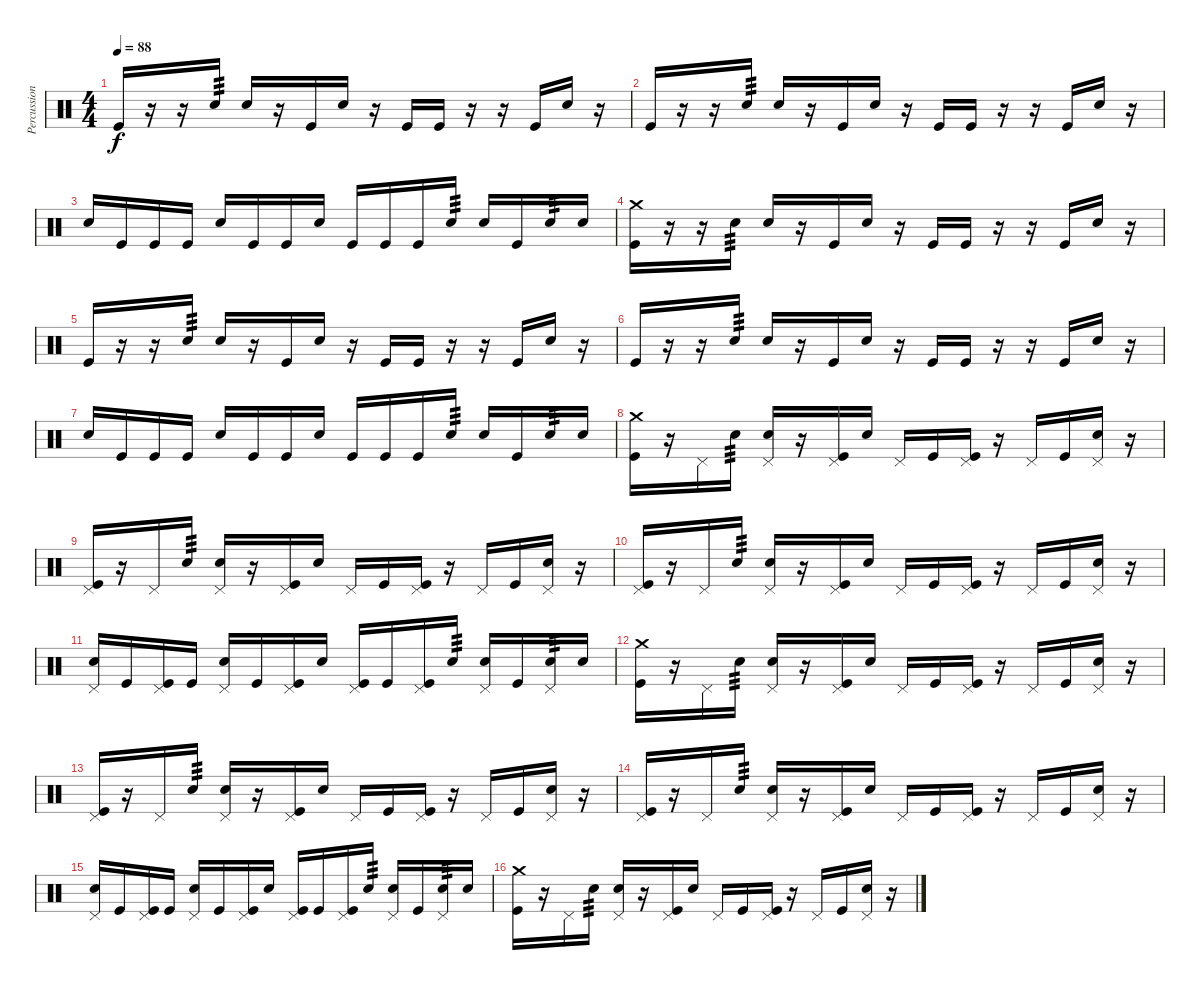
\track ("Percussions" "Percussion") {instrument percussion}
\staff {score}
\articulation defaults
\ts (4 4)
\tempo 88
\clef neutral
\ks c "Kick (hit)".16{dy f}
r.16 r.16 "Snare (hit) 2".16{tp 3} "Snare (hit) 2".16 r.16 "Kick (hit)".16 "Snare (hit) 2".16 r.16 "Kick (hit)".16 "Kick (hit)".16 r.16 r.16 "Kick (hit)".16 "Snare (hit) 2".16 r.16 |
"Kick (hit)".16 r.16 r.16 "Snare (hit) 2".16{tp 3} "Snare (hit) 2".16 r.16 "Kick (hit)".16 "Snare (hit) 2".16 r.16 "Kick (hit)".16 "Kick (hit)".16 r.16 r.16 "Kick (hit)".16 "Snare (hit) 2".16 r.16 |
"Snare (hit) 2".16 "Kick (hit)".16 "Kick (hit)".16 "Kick (hit)".16 "Snare (hit) 2".16 "Kick (hit)".16 "Kick (hit)".16 "Snare (hit) 2".16 "Kick (hit)".16 "Kick (hit)".16 "Kick (hit)".16 "Snare (hit) 2".16{tp 3} "Snare (hit) 2".16 "Kick (hit)".16 "Snare (hit) 2".16{tp 3} "Snare (hit) 2".16 |
("Crash medium (hit)" "Kick (hit)").16 r.16 r.16 "Snare (hit) 2".16{tp 3} "Snare (hit) 2".16 r.16 "Kick (hit)".16 "Snare (hit) 2".16 r.16 "Kick (hit)".16 "Kick (hit)".16 r.16 r.16 "Kick (hit)".16 "Snare (hit) 2".16 r.16 |
"Kick (hit)".16 r.16 r.16 "Snare (hit) 2".16{tp 3} "Snare (hit) 2".16 r.16 "Kick (hit)".16 "Snare (hit) 2".16 r.16 "Kick (hit)".16 "Kick (hit)".16 r.16 r.16 "Kick (hit)".16 "Snare (hit) 2".16 r.16 |
"Kick (hit)".16 r.16 r.16 "Snare (hit) 2".16{tp 3} "Snare (hit) 2".16 r.16 "Kick (hit)".16 "Snare (hit) 2".16 r.16 "Kick (hit)".16 "Kick (hit)".16 r.16 r.16 "Kick (hit)".16 "Snare (hit) 2".16 r.16 |
"Snare (hit) 2".16 "Kick (hit)".16 "Kick (hit)".16 "Kick (hit)".16 "Snare (hit) 2".16 "Kick (hit)".16 "Kick (hit)".16 "Snare (hit) 2".16 "Kick (hit)".16 "Kick (hit)".16 "Kick (hit)".16 "Snare (hit) 2".16{tp 3} "Snare (hit) 2".16 "Kick (hit)".16 "Snare (hit) 2".16{tp 3} "Snare (hit) 2".16 |
("Crash medium (hit)" "Kick (hit)").16 r.16 "Pedal Hi-Hat (hit)".16 "Snare (hit) 2".16{tp 3} ("Pedal Hi-Hat (hit)" "Snare (hit) 2").16 r.16 ("Pedal Hi-Hat (hit)" "Kick (hit)").16 "Snare (hit) 2".16 "Pedal Hi-Hat (hit)".16 "Kick (hit)".16 ("Pedal Hi-Hat (hit)" "Kick (hit)").16 r.16 "Pedal Hi-Hat (hit)".16 "Kick (hit)".16 ("Pedal Hi-Hat (hit)" "Snare (hit) 2").16 r.16 |
("Pedal Hi-Hat (hit)" "Kick (hit)").16 r.16 "Pedal Hi-Hat (hit)".16 "Snare (hit) 2".16{tp 3} ("Pedal Hi-Hat (hit)" "Snare (hit) 2").16 r.16 ("Pedal Hi-Hat (hit)" "Kick (hit)").16 "Snare (hit) 2".16 "Pedal Hi-Hat (hit)".16 "Kick (hit)".16 ("Pedal Hi-Hat (hit)" "Kick (hit)").16 r.16 "Pedal Hi-Hat (hit)".16 "Kick (hit)".16 ("Pedal Hi-Hat (hit)" "Snare (hit) 2").16 r.16 |
("Pedal Hi-Hat (hit)" "Kick (hit)").16 r.16 "Pedal Hi-Hat (hit)".16 "Snare (hit) 2".16{tp 3} ("Pedal Hi-Hat (hit)" "Snare (hit) 2").16 r.16 ("Pedal Hi-Hat (hit)" "Kick (hit)").16 "Snare (hit) 2".16 "Pedal Hi-Hat (hit)".16 "Kick (hit)".16 ("Pedal Hi-Hat (hit)" "Kick (hit)").16 r.16 "Pedal Hi-Hat (hit)".16 "Kick (hit)".16 ("Pedal Hi-Hat (hit)" "Snare (hit) 2").16 r.16 |
("Pedal Hi-Hat (hit)" "Snare (hit) 2").16 "Kick (hit)".16 ("Pedal Hi-Hat (hit)" "Kick (hit)").16 "Kick (hit)".16 ("Pedal Hi-Hat (hit)" "Snare (hit) 2").16 "Kick (hit)".16 ("Pedal Hi-Hat (hit)" "Kick (hit)").16 "Snare (hit) 2".16 ("Pedal Hi-Hat (hit)" "Kick (hit)").16 "Kick (hit)".16 ("Pedal Hi-Hat (hit)" "Kick (hit)").16 "Snare (hit) 2".16{tp 3} ("Pedal Hi-Hat (hit)" "Snare (hit) 2").16 "Kick (hit)".16 ("Pedal Hi-Hat (hit)" "Snare (hit) 2").16{tp 3} "Snare (hit) 2".16 |
("Crash medium (hit)" "Kick (hit)").16 r.16 "Pedal Hi-Hat (hit)".16 "Snare (hit) 2".16{tp 3} ("Pedal Hi-Hat (hit)" "Snare (hit) 2").16 r.16 ("Pedal Hi-Hat (hit)" "Kick (hit)").16 "Snare (hit) 2".16 "Pedal Hi-Hat (hit)".16 "Kick (hit)".16 ("Pedal Hi-Hat (hit)" "Kick (hit)").16 r.16 "Pedal Hi-Hat (hit)".16 "Kick (hit)".16 ("Pedal Hi-Hat (hit)" "Snare (hit) 2").16 r.16 |
("Pedal Hi-Hat (hit)" "Kick (hit)").16 r.16 "Pedal Hi-Hat (hit)".16 "Snare (hit) 2".16{tp 3} ("Pedal Hi-Hat (hit)" "Snare (hit) 2").16 r.16 ("Pedal Hi-Hat (hit)" "Kick (hit)").16 "Snare (hit) 2".16 "Pedal Hi-Hat (hit)".16 "Kick (hit)".16 ("Pedal Hi-Hat (hit)" "Kick (hit)").16 r.16 "Pedal Hi-Hat (hit)".16 "Kick (hit)".16 ("Pedal Hi-Hat (hit)" "Snare (hit) 2").16 r.16 |
("Pedal Hi-Hat (hit)" "Kick (hit)").16 r.16 "Pedal Hi-Hat (hit)".16 "Snare (hit) 2".16{tp 3} ("Pedal Hi-Hat (hit)" "Snare (hit) 2").16 r.16 ("Pedal Hi-Hat (hit)" "Kick (hit)").16 "Snare (hit) 2".16 "Pedal Hi-Hat (hit)".16 "Kick (hit)".16 ("Pedal Hi-Hat (hit)" "Kick (hit)").16 r.16 "Pedal Hi-Hat (hit)".16 "Kick (hit)".16 ("Pedal Hi-Hat (hit)" "Snare (hit) 2").16 r.16 |
("Pedal Hi-Hat (hit)" "Snare (hit) 2").16 "Kick (hit)".16 ("Pedal Hi-Hat (hit)" "Kick (hit)").16 "Kick (hit)".16 ("Pedal Hi-Hat (hit)" "Snare (hit) 2").16 "Kick (hit)".16 ("Pedal Hi-Hat (hit)" "Kick (hit)").16 "Snare (hit) 2".16 ("Pedal Hi-Hat (hit)" "Kick (hit)").16 "Kick (hit)".16 ("Pedal Hi-Hat (hit)" "Kick (hit)").16 "Snare (hit) 2".16{tp 3} ("Pedal Hi-Hat (hit)" "Snare (hit) 2").16 "Kick (hit)".16 ("Pedal Hi-Hat (hit)" "Snare (hit) 2").16{tp 3} "Snare (hit) 2".16 |
("Crash medium (hit)" "Kick (hit)").16 r.16 "Pedal Hi-Hat (hit)".16 "Snare (hit) 2".16{tp 3} ("Pedal Hi-Hat (hit)" "Snare (hit) 2").16 r.16 ("Pedal Hi-Hat (hit)" "Kick (hit)").16 "Snare (hit) 2".16 "Pedal Hi-Hat (hit)".16 "Kick (hit)".16 ("Pedal Hi-Hat (hit)" "Kick (hit)").16 r.16 "Pedal Hi-Hat (hit)".16 "Kick (hit)".16 ("Pedal Hi-Hat (hit)" "Snare (hit) 2").16 r.16
